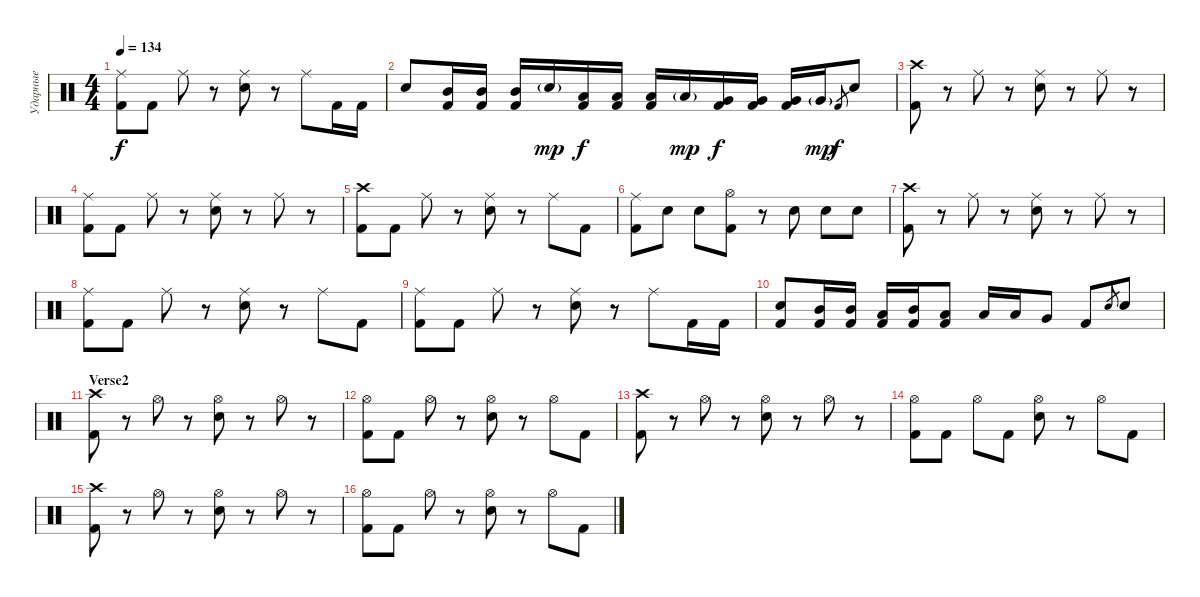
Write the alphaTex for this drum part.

\track ("Ударные" "Ударные") {instrument percussion}
\staff {score}
\articulation defaults
\ts (4 4)
\tempo 134
\clef neutral
\ks c
("Ride (middle)" "Kick (hit) 2").8{dy f} "Kick (hit) 2".8 "Ride (middle)".8 r.8 ("Ride (middle)" "Electric Snare (hit)").8 r.8 "Ride (middle)".8 "Kick (hit) 2".16 "Kick (hit) 2".16 |
"Electric Snare (hit)".8 ("Mid Tom (hit)" "Kick (hit) 2").16 ("Mid Tom (hit)" "Kick (hit) 2").16 ("Mid Tom (hit)" "Kick (hit) 2").16 "Snare (hit)"{g}.16{dy mp} ("Low Tom (hit)" "Kick (hit) 2").16{dy f} ("Low Tom (hit)" "Kick (hit) 2").16 ("Low Tom (hit)" "Kick (hit) 2").16 "Low Tom (hit)"{g}.16{dy mp} ("Very Low Tom (hit)" "Kick (hit) 2").16{dy f} ("Very Low Tom (hit)" "Kick (hit) 2").16 ("Very Low Tom (hit)" "Kick (hit) 2").16 "Very Low Tom (hit)"{g}.16{dy mp} "Kick (hit) 2".8{gr dy f} "Electric Snare (hit)".8 |
("Crash high (hit)" "Kick (hit) 2").8 r.8 "Ride (middle)".8 r.8 ("Ride (middle)" "Electric Snare (hit)").8 r.8 "Ride (middle)".8 r.8 |
("Ride (middle)" "Kick (hit) 2").8 "Kick (hit) 2".8 "Ride (middle)".8 r.8 ("Ride (middle)" "Electric Snare (hit)").8 r.8 "Ride (middle)".8 r.8 |
("Crash high (hit)" "Kick (hit) 2").8 "Kick (hit) 2".8 "Ride (middle)".8 r.8 ("Ride (middle)" "Electric Snare (hit)").8 r.8 "Ride (middle)".8 "Kick (hit) 2".8 |
("Ride (middle)" "Kick (hit) 2").8 "Electric Snare (hit)".8 "Electric Snare (hit)".8 ("Hi-Hat (open)" "Kick (hit) 2").8 r.8 "Electric Snare (hit)".8 "Electric Snare (hit)".8 "Electric Snare (hit)".8 |
("Crash high (hit)" "Kick (hit) 2").8 r.8 "Ride (middle)".8 r.8 ("Ride (middle)" "Electric Snare (hit)").8 r.8 "Ride (middle)".8 r.8 |
("Ride (middle)" "Kick (hit) 2").8 "Kick (hit) 2".8 "Ride (middle)".8 r.8 ("Ride (middle)" "Electric Snare (hit)").8 r.8 "Ride (middle)".8 "Kick (hit) 2".8 |
("Ride (middle)" "Kick (hit) 2").8 "Kick (hit) 2".8 "Ride (middle)".8 r.8 ("Ride (middle)" "Electric Snare (hit)").8 r.8 "Ride (middle)".8 "Kick (hit) 2".16 "Kick (hit) 2".16 |
("Electric Snare (hit)" "Kick (hit) 2").8 ("Mid Tom (hit)" "Kick (hit) 2").16 ("Mid Tom (hit)" "Kick (hit) 2").16 ("Low Tom (hit)" "Kick (hit) 2").16 ("Mid Tom (hit)" "Kick (hit) 2").16 ("Low Tom (hit)" "Kick (hit) 2").8 "Low Tom (hit)".16 "Low Tom (hit)".16 "Very Low Tom (hit)".8 "Kick (hit) 2".8 "Electric Snare (hit)".8{gr} "Electric Snare (hit)".8 |
\section ("" "Verse2")
("Crash high (hit)" "Kick (hit) 2").8 r.8 "Hi-Hat (open)".8 r.8 ("Hi-Hat (open)" "Electric Snare (hit)").8 r.8 "Hi-Hat (open)".8 r.8 |
("Hi-Hat (open)" "Kick (hit) 2").8 "Kick (hit) 2".8 "Hi-Hat (open)".8 r.8 ("Hi-Hat (open)" "Electric Snare (hit)").8 r.8 "Hi-Hat (open)".8 "Kick (hit) 2".8 |
("Crash high (hit)" "Kick (hit) 2").8 r.8 "Hi-Hat (open)".8 r.8 ("Hi-Hat (open)" "Electric Snare (hit)").8 r.8 "Hi-Hat (open)".8 r.8 |
("Hi-Hat (open)" "Kick (hit) 2").8 "Kick (hit) 2".8 "Hi-Hat (open)".8 "Kick (hit) 2".8 ("Hi-Hat (open)" "Electric Snare (hit)").8 r.8 "Hi-Hat (open)".8 "Kick (hit) 2".8 |
("Crash high (hit)" "Kick (hit) 2").8 r.8 "Hi-Hat (open)".8 r.8 ("Hi-Hat (open)" "Electric Snare (hit)").8 r.8 "Hi-Hat (open)".8 r.8 |
("Hi-Hat (open)" "Kick (hit) 2").8 "Kick (hit) 2".8 "Hi-Hat (open)".8 r.8 ("Hi-Hat (open)" "Electric Snare (hit)").8 r.8 "Hi-Hat (open)".8 "Kick (hit) 2".8
